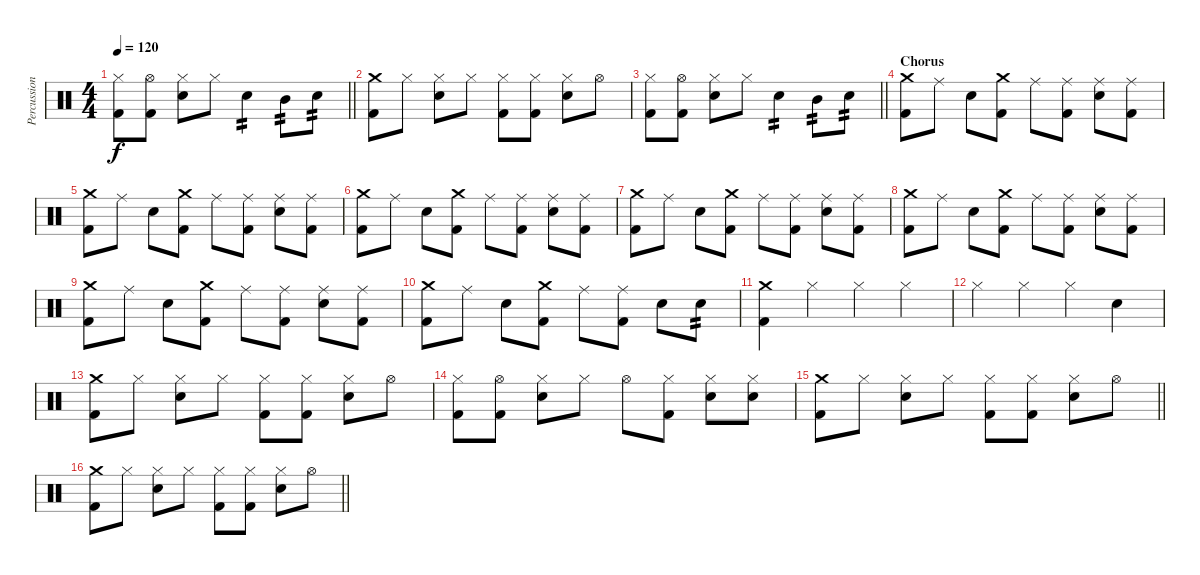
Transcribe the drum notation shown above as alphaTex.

\track ("Percussion" "Percussion") {instrument percussion}
\staff {score}
\articulation defaults
\ts (4 4)
\tempo 120
\clef neutral
\barLineRight lightlight
\ks c
("Hi-Hat (closed)" "Kick (hit) 2").8{dy f} ("Hi-Hat (open)" "Kick (hit) 2").8 ("Hi-Hat (closed)" "Snare (hit) 2").8 "Hi-Hat (closed)".8 "Snare (hit) 2".4{tp 2} "Mid Tom (hit)".8{tp 2} "Snare (hit) 2".8{tp 2} |
("Crash medium (hit)" "Kick (hit) 2").8 "Hi-Hat (closed)".8 ("Hi-Hat (closed)" "Snare (hit) 2").8 "Hi-Hat (closed)".8 ("Hi-Hat (closed)" "Kick (hit) 2").8 ("Hi-Hat (closed)" "Kick (hit) 2").8 ("Hi-Hat (closed)" "Snare (hit) 2").8 "Hi-Hat (open)".8 |
\barLineRight lightlight
("Hi-Hat (closed)" "Kick (hit) 2").8 ("Hi-Hat (open)" "Kick (hit) 2").8 ("Hi-Hat (closed)" "Snare (hit) 2").8 "Hi-Hat (closed)".8 "Snare (hit) 2".4{tp 2} "Mid Tom (hit)".8{tp 2} "Snare (hit) 2".8{tp 2} |
\section ("" "Chorus")
("Crash medium (hit)" "Kick (hit) 2").8 "Ride (middle)".8 "Snare (hit) 2".8 ("Crash medium (hit)" "Kick (hit) 2").8 "Ride (middle)".8 ("Ride (middle)" "Kick (hit) 2").8 ("Ride (middle)" "Snare (hit) 2").8 ("Ride (middle)" "Kick (hit) 2").8 |
("Crash medium (hit)" "Kick (hit) 2").8 "Ride (middle)".8 "Snare (hit) 2".8 ("Crash medium (hit)" "Kick (hit) 2").8 "Ride (middle)".8 ("Ride (middle)" "Kick (hit) 2").8 ("Ride (middle)" "Snare (hit) 2").8 ("Ride (middle)" "Kick (hit) 2").8 |
("Crash medium (hit)" "Kick (hit) 2").8 "Ride (middle)".8 "Snare (hit) 2".8 ("Crash medium (hit)" "Kick (hit) 2").8 "Ride (middle)".8 ("Ride (middle)" "Kick (hit) 2").8 ("Ride (middle)" "Snare (hit) 2").8 ("Ride (middle)" "Kick (hit) 2").8 |
("Crash medium (hit)" "Kick (hit) 2").8 "Ride (middle)".8 "Snare (hit) 2".8 ("Crash medium (hit)" "Kick (hit) 2").8 "Ride (middle)".8 ("Ride (middle)" "Kick (hit) 2").8 ("Ride (middle)" "Snare (hit) 2").8 ("Ride (middle)" "Kick (hit) 2").8 |
("Crash medium (hit)" "Kick (hit) 2").8 "Ride (middle)".8 "Snare (hit) 2".8 ("Crash medium (hit)" "Kick (hit) 2").8 "Ride (middle)".8 ("Ride (middle)" "Kick (hit) 2").8 ("Ride (middle)" "Snare (hit) 2").8 ("Ride (middle)" "Kick (hit) 2").8 |
("Crash medium (hit)" "Kick (hit) 2").8 "Ride (middle)".8 "Snare (hit) 2".8 ("Crash medium (hit)" "Kick (hit) 2").8 "Ride (middle)".8 ("Ride (middle)" "Kick (hit) 2").8 ("Ride (middle)" "Snare (hit) 2").8 ("Ride (middle)" "Kick (hit) 2").8 |
("Crash medium (hit)" "Kick (hit) 2").8 "Ride (middle)".8 "Snare (hit) 2".8 ("Crash medium (hit)" "Kick (hit) 2").8 "Ride (middle)".8 ("Ride (middle)" "Kick (hit) 2").8 "Snare (hit) 2".8 "Snare (hit) 2".8{tp 2} |
("Crash medium (hit)" "Kick (hit) 2").4 "Hi-Hat (closed)".4 "Hi-Hat (closed)".4 "Hi-Hat (closed)".4 |
"Hi-Hat (closed)".4 "Hi-Hat (closed)".4 "Hi-Hat (closed)".4 "Snare (hit) 2".4 |
("Crash medium (hit)" "Kick (hit) 2").8 "Hi-Hat (closed)".8 ("Hi-Hat (closed)" "Snare (hit) 2").8 "Hi-Hat (closed)".8 ("Hi-Hat (closed)" "Kick (hit) 2").8 ("Hi-Hat (closed)" "Kick (hit) 2").8 ("Hi-Hat (closed)" "Snare (hit) 2").8 "Hi-Hat (open)".8 |
("Hi-Hat (closed)" "Kick (hit) 2").8 ("Hi-Hat (open)" "Kick (hit) 2").8 ("Hi-Hat (closed)" "Snare (hit) 2").8 "Hi-Hat (closed)".8 "Hi-Hat (open)".8 ("Hi-Hat (closed)" "Kick (hit) 2").8 ("Hi-Hat (closed)" "Snare (hit) 2").8 ("Hi-Hat (closed)" "Snare (hit) 2").8 |
\barLineRight lightlight
("Crash medium (hit)" "Kick (hit) 2").8 "Hi-Hat (closed)".8 ("Hi-Hat (closed)" "Snare (hit) 2").8 "Hi-Hat (closed)".8 ("Hi-Hat (closed)" "Kick (hit) 2").8 ("Hi-Hat (closed)" "Kick (hit) 2").8 ("Hi-Hat (closed)" "Snare (hit) 2").8 "Hi-Hat (open)".8 |
\barLineRight lightlight
("Crash medium (hit)" "Kick (hit) 2").8 "Hi-Hat (closed)".8 ("Hi-Hat (closed)" "Snare (hit) 2").8 "Hi-Hat (closed)".8 ("Hi-Hat (closed)" "Kick (hit) 2").8 ("Hi-Hat (closed)" "Kick (hit) 2").8 ("Hi-Hat (closed)" "Snare (hit) 2").8 "Hi-Hat (open)".8
